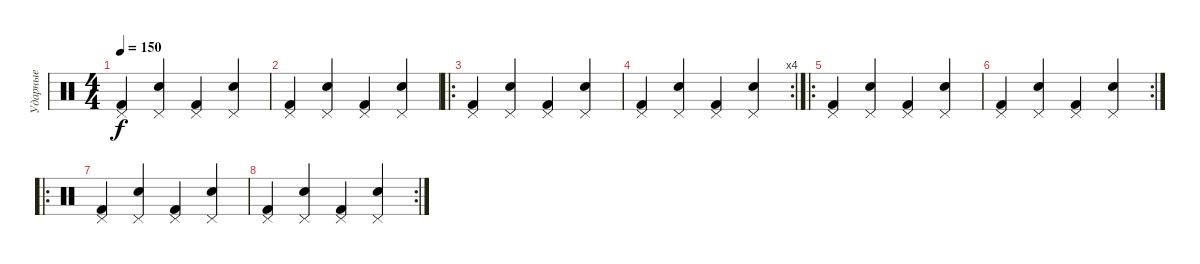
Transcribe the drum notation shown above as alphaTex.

\track ("Ударные" "Ударные") {instrument percussion}
\staff {score}
\articulation defaults
\ts (4 4)
\tempo 150
\clef neutral
\ks c
("Pedal Hi-Hat (hit)" "Kick (hit) 2").4{dy f} ("Pedal Hi-Hat (hit)" "Snare (hit) 2").4 ("Pedal Hi-Hat (hit)" "Kick (hit) 2").4 ("Pedal Hi-Hat (hit)" "Snare (hit) 2").4 |
("Pedal Hi-Hat (hit)" "Kick (hit) 2").4 ("Pedal Hi-Hat (hit)" "Snare (hit) 2").4 ("Pedal Hi-Hat (hit)" "Kick (hit) 2").4 ("Pedal Hi-Hat (hit)" "Snare (hit) 2").4 |
\ro
("Pedal Hi-Hat (hit)" "Kick (hit) 2").4 ("Pedal Hi-Hat (hit)" "Snare (hit) 2").4 ("Pedal Hi-Hat (hit)" "Kick (hit) 2").4 ("Pedal Hi-Hat (hit)" "Snare (hit) 2").4 |
\rc 4
("Pedal Hi-Hat (hit)" "Kick (hit) 2").4 ("Pedal Hi-Hat (hit)" "Snare (hit) 2").4 ("Pedal Hi-Hat (hit)" "Kick (hit) 2").4 ("Pedal Hi-Hat (hit)" "Snare (hit) 2").4 |
\ro
("Pedal Hi-Hat (hit)" "Kick (hit) 2").4 ("Pedal Hi-Hat (hit)" "Snare (hit) 2").4 ("Pedal Hi-Hat (hit)" "Kick (hit) 2").4 ("Pedal Hi-Hat (hit)" "Snare (hit) 2").4 |
\rc 2
("Pedal Hi-Hat (hit)" "Kick (hit) 2").4 ("Pedal Hi-Hat (hit)" "Snare (hit) 2").4 ("Pedal Hi-Hat (hit)" "Kick (hit) 2").4 ("Pedal Hi-Hat (hit)" "Snare (hit) 2").4 |
\ro
("Pedal Hi-Hat (hit)" "Kick (hit) 2").4 ("Pedal Hi-Hat (hit)" "Snare (hit) 2").4 ("Pedal Hi-Hat (hit)" "Kick (hit) 2").4 ("Pedal Hi-Hat (hit)" "Snare (hit) 2").4 |
\rc 2
("Pedal Hi-Hat (hit)" "Kick (hit) 2").4 ("Pedal Hi-Hat (hit)" "Snare (hit) 2").4 ("Pedal Hi-Hat (hit)" "Kick (hit) 2").4 ("Pedal Hi-Hat (hit)" "Snare (hit) 2").4
